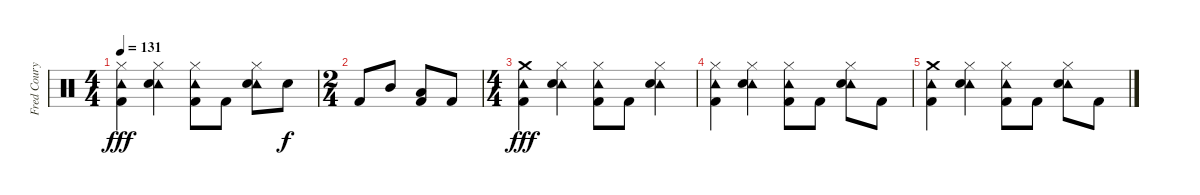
\track ("Fred Coury - Drums" "Fred Coury") {instrument percussion}
\staff {score}
\articulation defaults
\ts (4 4)
\tempo 131
\clef neutral
\ks c
("Hi-Hat (closed)" "Tambourine (hit)" "Kick (hit) 2").4{dy fff} ("Hi-Hat (closed)" "Tambourine (hit)" "Snare (hit) 2").4 ("Hi-Hat (closed)" "Tambourine (hit)" "Kick (hit) 2").8 "Kick (hit) 2".8 ("Hi-Hat (closed)" "Tambourine (hit)" "Snare (hit) 2").8 "Snare (hit) 2".8{dy f} |
\ts (2 4)
"Kick (hit) 2".8 "Mid Tom (hit)".8 ("Low Tom (hit)" "Kick (hit) 2").8 "Kick (hit) 2".8 |
\ts (4 4)
("Crash medium (hit)" "Tambourine (hit)" "Kick (hit) 2").4{dy fff} ("Hi-Hat (closed)" "Tambourine (hit)" "Snare (hit) 2").4 ("Hi-Hat (closed)" "Tambourine (hit)" "Kick (hit) 2").8 "Kick (hit) 2".8 ("Hi-Hat (closed)" "Tambourine (hit)" "Snare (hit) 2").4 |
("Hi-Hat (closed)" "Tambourine (hit)" "Kick (hit) 2").4 ("Hi-Hat (closed)" "Tambourine (hit)" "Snare (hit) 2").4 ("Hi-Hat (closed)" "Tambourine (hit)" "Kick (hit) 2").8 "Kick (hit) 2".8 ("Hi-Hat (closed)" "Tambourine (hit)" "Snare (hit) 2").8 "Kick (hit) 2".8 |
("Crash medium (hit)" "Tambourine (hit)" "Kick (hit) 2").4 ("Hi-Hat (closed)" "Tambourine (hit)" "Snare (hit) 2").4 ("Hi-Hat (closed)" "Tambourine (hit)" "Kick (hit) 2").8 "Kick (hit) 2".8 ("Hi-Hat (closed)" "Tambourine (hit)" "Snare (hit) 2").8 "Kick (hit) 2".8
